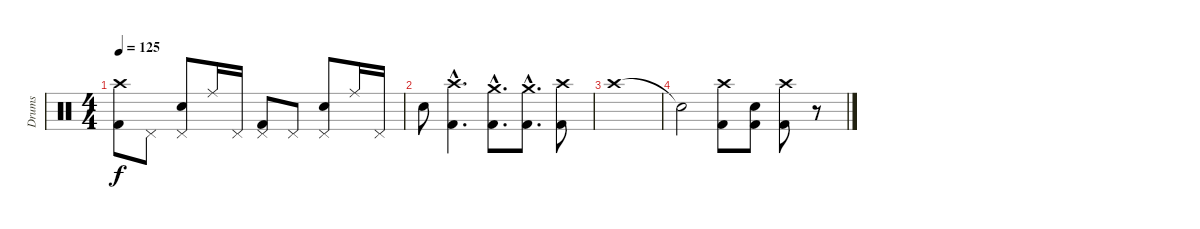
\track ("Drums" "Drums") {instrument percussion}
\staff {score}
\articulation defaults
\ts (4 4)
\tempo 125
\clef neutral
\ks c
("Crash high (hit)" "Kick (hit) 2").8{dy f} "Pedal Hi-Hat (hit)".8 ("Pedal Hi-Hat (hit)" "Snare (hit) 2").8 "Ride (middle)".16 "Pedal Hi-Hat (hit)".16 ("Pedal Hi-Hat (hit)" "Kick (hit) 2").8 "Pedal Hi-Hat (hit)".8 ("Pedal Hi-Hat (hit)" "Snare (hit) 2").8 "Ride (middle)".16 "Pedal Hi-Hat (hit)".16 |
"Snare (hit) 2".8 ("Crash high (hit)"{hac} "Kick (hit) 2"{hac}).4{d} ("Kick (hit) 2"{hac} "Crash medium (hit)"{hac}).8{d} ("Kick (hit) 2"{hac} "Crash medium (hit)"{hac}).8{d} ("Crash high (hit)" "Kick (hit) 2").8 |
"Crash high (hit)".1 |
"Snare (hit)"{t}.2 ("Kick (hit) 2" "Crash high (hit)").8 ("Snare (hit) 2" "Kick (hit) 2").8 ("Kick (hit) 2" "Crash high (hit)").8 r.8
